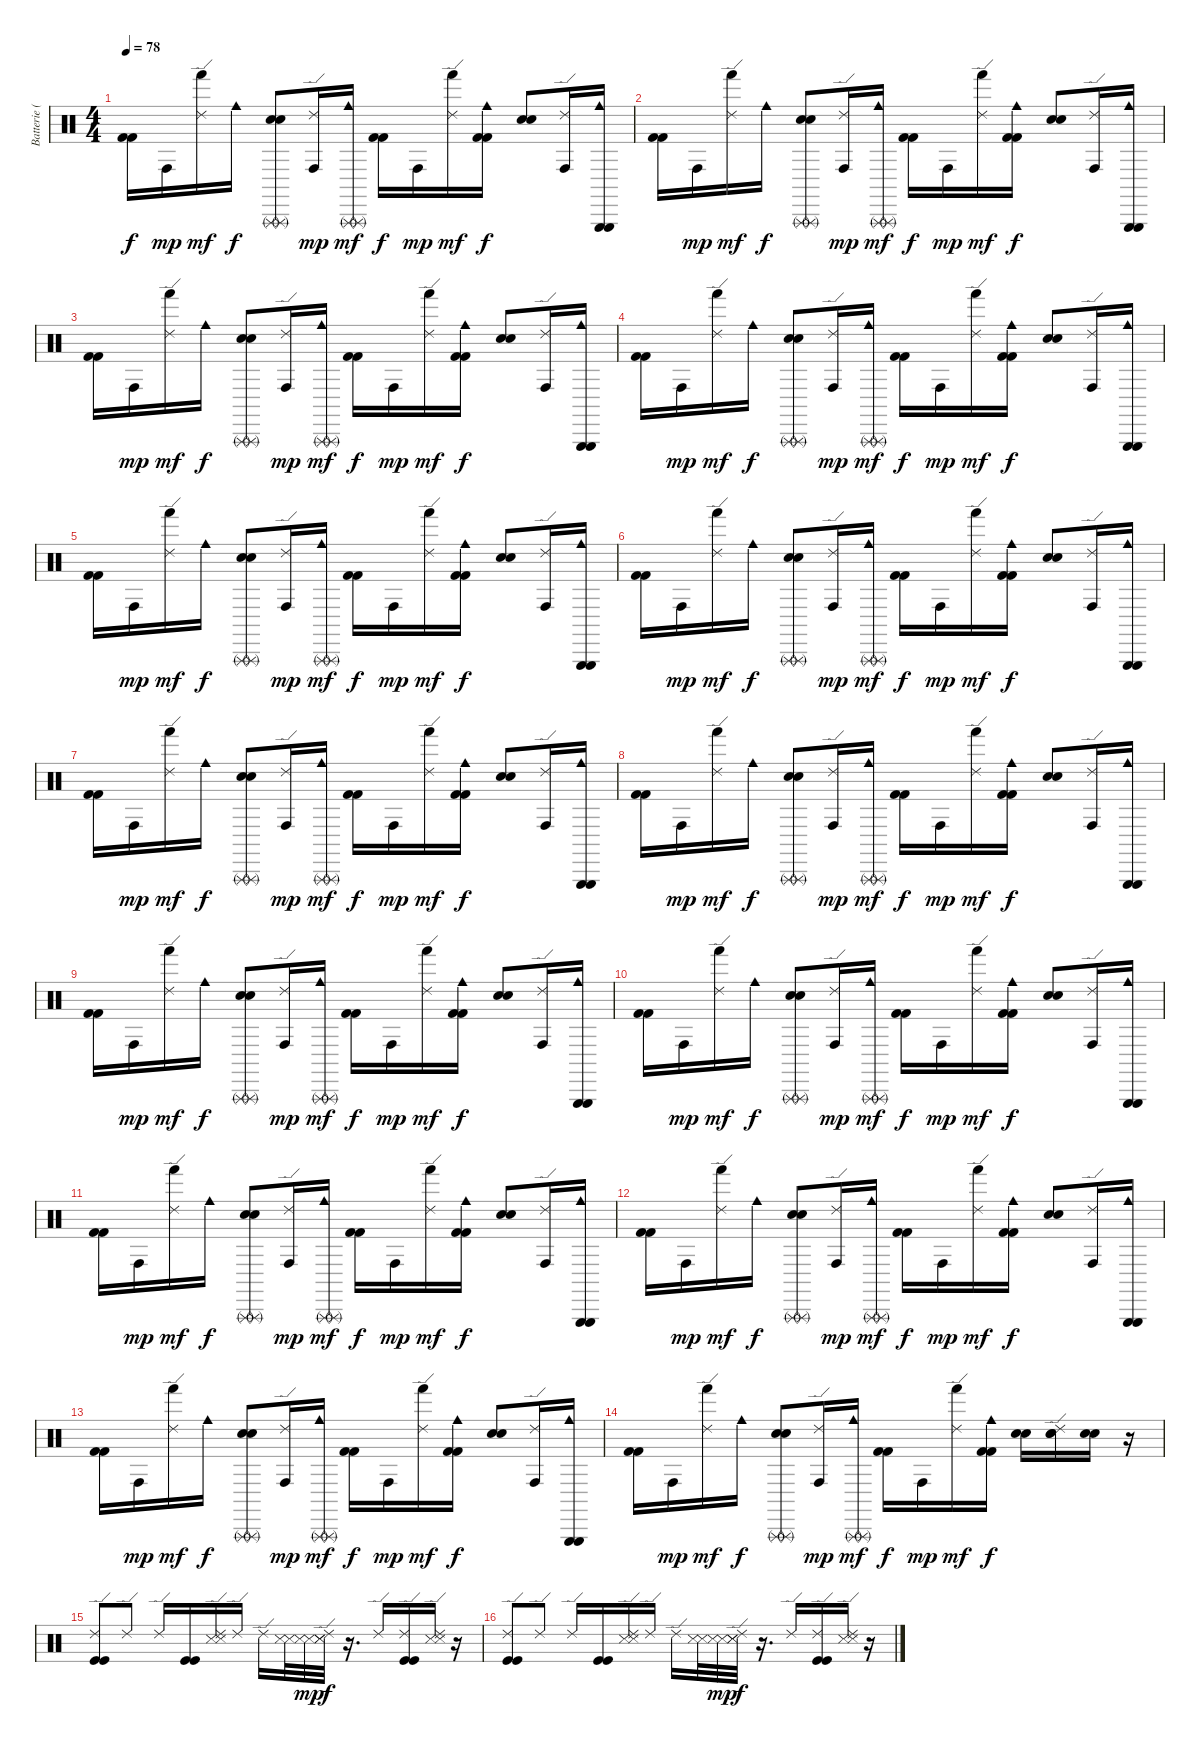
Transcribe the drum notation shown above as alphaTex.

\track ("Batterie ( Raphaël )" "Batterie (") {instrument percussion}
\staff {score}
\articulation defaults
\ts (4 4)
\tempo 78
\clef neutral
\ks c
("Kick (hit) 2" "Kick (hit) 2").16{dy f} "Conga high (hit)".16{dy mp} ("Ride (edge) 2" "Hand (hit)").16{dy mf} "Cowbell medium (hit)".16{dy f} ("Triangle (rnute)" "Triangle (rnute)" "Electric Snare (hit)" "Electric Snare (hit)").8 ("Ride (edge) 2" "Conga high (hit)").16{dy mp} ("Triangle (rnute)" "Triangle (rnute)" "Cowbell medium (hit)").16{dy mf} ("Kick (hit) 2" "Kick (hit) 2").16{dy f} "Conga high (hit)".16{dy mp} ("Ride (edge) 2" "Hand (hit)").16{dy mf} ("Cowbell medium (hit)" "Kick (hit) 2" "Kick (hit) 2").16{dy f} ("Electric Snare (hit)" "Electric Snare (hit)").8 ("Ride (edge) 2" "Conga high (hit)").16 ("Triangle (hit)" "Triangle (hit)" "Cowbell medium (hit)").16 |
("Kick (hit) 2" "Kick (hit) 2").16 "Conga high (hit)".16{dy mp} ("Ride (edge) 2" "Hand (hit)").16{dy mf} "Cowbell medium (hit)".16{dy f} ("Triangle (rnute)" "Triangle (rnute)" "Electric Snare (hit)" "Electric Snare (hit)").8 ("Ride (edge) 2" "Conga high (hit)").16{dy mp} ("Triangle (rnute)" "Triangle (rnute)" "Cowbell medium (hit)").16{dy mf} ("Kick (hit) 2" "Kick (hit) 2").16{dy f} "Conga high (hit)".16{dy mp} ("Ride (edge) 2" "Hand (hit)").16{dy mf} ("Cowbell medium (hit)" "Kick (hit) 2" "Kick (hit) 2").16{dy f} ("Electric Snare (hit)" "Electric Snare (hit)").8 ("Ride (edge) 2" "Conga high (hit)").16 ("Triangle (hit)" "Triangle (hit)" "Cowbell medium (hit)").16 |
("Kick (hit) 2" "Kick (hit) 2").16 "Conga high (hit)".16{dy mp} ("Ride (edge) 2" "Hand (hit)").16{dy mf} "Cowbell medium (hit)".16{dy f} ("Triangle (rnute)" "Triangle (rnute)" "Electric Snare (hit)" "Electric Snare (hit)").8 ("Ride (edge) 2" "Conga high (hit)").16{dy mp} ("Triangle (rnute)" "Triangle (rnute)" "Cowbell medium (hit)").16{dy mf} ("Kick (hit) 2" "Kick (hit) 2").16{dy f} "Conga high (hit)".16{dy mp} ("Ride (edge) 2" "Hand (hit)").16{dy mf} ("Cowbell medium (hit)" "Kick (hit) 2" "Kick (hit) 2").16{dy f} ("Electric Snare (hit)" "Electric Snare (hit)").8 ("Ride (edge) 2" "Conga high (hit)").16 ("Triangle (hit)" "Triangle (hit)" "Cowbell medium (hit)").16 |
("Kick (hit) 2" "Kick (hit) 2").16 "Conga high (hit)".16{dy mp} ("Ride (edge) 2" "Hand (hit)").16{dy mf} "Cowbell medium (hit)".16{dy f} ("Triangle (rnute)" "Triangle (rnute)" "Electric Snare (hit)" "Electric Snare (hit)").8 ("Ride (edge) 2" "Conga high (hit)").16{dy mp} ("Triangle (rnute)" "Triangle (rnute)" "Cowbell medium (hit)").16{dy mf} ("Kick (hit) 2" "Kick (hit) 2").16{dy f} "Conga high (hit)".16{dy mp} ("Ride (edge) 2" "Hand (hit)").16{dy mf} ("Cowbell medium (hit)" "Kick (hit) 2" "Kick (hit) 2").16{dy f} ("Electric Snare (hit)" "Electric Snare (hit)").8 ("Ride (edge) 2" "Conga high (hit)").16 ("Triangle (hit)" "Triangle (hit)" "Cowbell medium (hit)").16 |
("Kick (hit) 2" "Kick (hit) 2").16 "Conga high (hit)".16{dy mp} ("Ride (edge) 2" "Hand (hit)").16{dy mf} "Cowbell medium (hit)".16{dy f} ("Triangle (rnute)" "Triangle (rnute)" "Electric Snare (hit)" "Electric Snare (hit)").8 ("Ride (edge) 2" "Conga high (hit)").16{dy mp} ("Triangle (rnute)" "Triangle (rnute)" "Cowbell medium (hit)").16{dy mf} ("Kick (hit) 2" "Kick (hit) 2").16{dy f} "Conga high (hit)".16{dy mp} ("Ride (edge) 2" "Hand (hit)").16{dy mf} ("Cowbell medium (hit)" "Kick (hit) 2" "Kick (hit) 2").16{dy f} ("Electric Snare (hit)" "Electric Snare (hit)").8 ("Ride (edge) 2" "Conga high (hit)").16 ("Triangle (hit)" "Triangle (hit)" "Cowbell medium (hit)").16 |
("Kick (hit) 2" "Kick (hit) 2").16 "Conga high (hit)".16{dy mp} ("Ride (edge) 2" "Hand (hit)").16{dy mf} "Cowbell medium (hit)".16{dy f} ("Triangle (rnute)" "Triangle (rnute)" "Electric Snare (hit)" "Electric Snare (hit)").8 ("Ride (edge) 2" "Conga high (hit)").16{dy mp} ("Triangle (rnute)" "Triangle (rnute)" "Cowbell medium (hit)").16{dy mf} ("Kick (hit) 2" "Kick (hit) 2").16{dy f} "Conga high (hit)".16{dy mp} ("Ride (edge) 2" "Hand (hit)").16{dy mf} ("Cowbell medium (hit)" "Kick (hit) 2" "Kick (hit) 2").16{dy f} ("Electric Snare (hit)" "Electric Snare (hit)").8 ("Ride (edge) 2" "Conga high (hit)").16 ("Triangle (hit)" "Triangle (hit)" "Cowbell medium (hit)").16 |
("Kick (hit) 2" "Kick (hit) 2").16 "Conga high (hit)".16{dy mp} ("Ride (edge) 2" "Hand (hit)").16{dy mf} "Cowbell medium (hit)".16{dy f} ("Triangle (rnute)" "Triangle (rnute)" "Electric Snare (hit)" "Electric Snare (hit)").8 ("Ride (edge) 2" "Conga high (hit)").16{dy mp} ("Triangle (rnute)" "Triangle (rnute)" "Cowbell medium (hit)").16{dy mf} ("Kick (hit) 2" "Kick (hit) 2").16{dy f} "Conga high (hit)".16{dy mp} ("Ride (edge) 2" "Hand (hit)").16{dy mf} ("Cowbell medium (hit)" "Kick (hit) 2" "Kick (hit) 2").16{dy f} ("Electric Snare (hit)" "Electric Snare (hit)").8 ("Ride (edge) 2" "Conga high (hit)").16 ("Triangle (hit)" "Triangle (hit)" "Cowbell medium (hit)").16 |
("Kick (hit) 2" "Kick (hit) 2").16 "Conga high (hit)".16{dy mp} ("Ride (edge) 2" "Hand (hit)").16{dy mf} "Cowbell medium (hit)".16{dy f} ("Triangle (rnute)" "Triangle (rnute)" "Electric Snare (hit)" "Electric Snare (hit)").8 ("Ride (edge) 2" "Conga high (hit)").16{dy mp} ("Triangle (rnute)" "Triangle (rnute)" "Cowbell medium (hit)").16{dy mf} ("Kick (hit) 2" "Kick (hit) 2").16{dy f} "Conga high (hit)".16{dy mp} ("Ride (edge) 2" "Hand (hit)").16{dy mf} ("Cowbell medium (hit)" "Kick (hit) 2" "Kick (hit) 2").16{dy f} ("Electric Snare (hit)" "Electric Snare (hit)").8 ("Ride (edge) 2" "Conga high (hit)").16 ("Triangle (hit)" "Triangle (hit)" "Cowbell medium (hit)").16 |
("Kick (hit) 2" "Kick (hit) 2").16 "Conga high (hit)".16{dy mp} ("Ride (edge) 2" "Hand (hit)").16{dy mf} "Cowbell medium (hit)".16{dy f} ("Triangle (rnute)" "Triangle (rnute)" "Electric Snare (hit)" "Electric Snare (hit)").8 ("Ride (edge) 2" "Conga high (hit)").16{dy mp} ("Triangle (rnute)" "Triangle (rnute)" "Cowbell medium (hit)").16{dy mf} ("Kick (hit) 2" "Kick (hit) 2").16{dy f} "Conga high (hit)".16{dy mp} ("Ride (edge) 2" "Hand (hit)").16{dy mf} ("Cowbell medium (hit)" "Kick (hit) 2" "Kick (hit) 2").16{dy f} ("Electric Snare (hit)" "Electric Snare (hit)").8 ("Ride (edge) 2" "Conga high (hit)").16 ("Triangle (hit)" "Triangle (hit)" "Cowbell medium (hit)").16 |
("Kick (hit) 2" "Kick (hit) 2").16 "Conga high (hit)".16{dy mp} ("Ride (edge) 2" "Hand (hit)").16{dy mf} "Cowbell medium (hit)".16{dy f} ("Triangle (rnute)" "Triangle (rnute)" "Electric Snare (hit)" "Electric Snare (hit)").8 ("Ride (edge) 2" "Conga high (hit)").16{dy mp} ("Triangle (rnute)" "Triangle (rnute)" "Cowbell medium (hit)").16{dy mf} ("Kick (hit) 2" "Kick (hit) 2").16{dy f} "Conga high (hit)".16{dy mp} ("Ride (edge) 2" "Hand (hit)").16{dy mf} ("Cowbell medium (hit)" "Kick (hit) 2" "Kick (hit) 2").16{dy f} ("Electric Snare (hit)" "Electric Snare (hit)").8 ("Ride (edge) 2" "Conga high (hit)").16 ("Triangle (hit)" "Triangle (hit)" "Cowbell medium (hit)").16 |
("Kick (hit) 2" "Kick (hit) 2").16 "Conga high (hit)".16{dy mp} ("Ride (edge) 2" "Hand (hit)").16{dy mf} "Cowbell medium (hit)".16{dy f} ("Triangle (rnute)" "Triangle (rnute)" "Electric Snare (hit)" "Electric Snare (hit)").8 ("Ride (edge) 2" "Conga high (hit)").16{dy mp} ("Triangle (rnute)" "Triangle (rnute)" "Cowbell medium (hit)").16{dy mf} ("Kick (hit) 2" "Kick (hit) 2").16{dy f} "Conga high (hit)".16{dy mp} ("Ride (edge) 2" "Hand (hit)").16{dy mf} ("Cowbell medium (hit)" "Kick (hit) 2" "Kick (hit) 2").16{dy f} ("Electric Snare (hit)" "Electric Snare (hit)").8 ("Ride (edge) 2" "Conga high (hit)").16 ("Triangle (hit)" "Triangle (hit)" "Cowbell medium (hit)").16 |
("Kick (hit) 2" "Kick (hit) 2").16 "Conga high (hit)".16{dy mp} ("Ride (edge) 2" "Hand (hit)").16{dy mf} "Cowbell medium (hit)".16{dy f} ("Triangle (rnute)" "Triangle (rnute)" "Electric Snare (hit)" "Electric Snare (hit)").8 ("Ride (edge) 2" "Conga high (hit)").16{dy mp} ("Triangle (rnute)" "Triangle (rnute)" "Cowbell medium (hit)").16{dy mf} ("Kick (hit) 2" "Kick (hit) 2").16{dy f} "Conga high (hit)".16{dy mp} ("Ride (edge) 2" "Hand (hit)").16{dy mf} ("Cowbell medium (hit)" "Kick (hit) 2" "Kick (hit) 2").16{dy f} ("Electric Snare (hit)" "Electric Snare (hit)").8 ("Ride (edge) 2" "Conga high (hit)").16 ("Triangle (hit)" "Triangle (hit)" "Cowbell medium (hit)").16 |
("Kick (hit) 2" "Kick (hit) 2").16 "Conga high (hit)".16{dy mp} ("Ride (edge) 2" "Hand (hit)").16{dy mf} "Cowbell medium (hit)".16{dy f} ("Triangle (rnute)" "Triangle (rnute)" "Electric Snare (hit)" "Electric Snare (hit)").8 ("Ride (edge) 2" "Conga high (hit)").16{dy mp} ("Triangle (rnute)" "Triangle (rnute)" "Cowbell medium (hit)").16{dy mf} ("Kick (hit) 2" "Kick (hit) 2").16{dy f} "Conga high (hit)".16{dy mp} ("Ride (edge) 2" "Hand (hit)").16{dy mf} ("Cowbell medium (hit)" "Kick (hit) 2" "Kick (hit) 2").16{dy f} ("Electric Snare (hit)" "Electric Snare (hit)").8 ("Ride (edge) 2" "Conga high (hit)").16 ("Triangle (hit)" "Triangle (hit)" "Cowbell medium (hit)").16 |
("Kick (hit) 2" "Kick (hit) 2").16 "Conga high (hit)".16{dy mp} ("Ride (edge) 2" "Hand (hit)").16{dy mf} "Cowbell medium (hit)".16{dy f} ("Triangle (rnute)" "Triangle (rnute)" "Electric Snare (hit)" "Electric Snare (hit)").8 ("Ride (edge) 2" "Conga high (hit)").16{dy mp} ("Triangle (rnute)" "Triangle (rnute)" "Cowbell medium (hit)").16{dy mf} ("Kick (hit) 2" "Kick (hit) 2").16{dy f} "Conga high (hit)".16{dy mp} ("Ride (edge) 2" "Hand (hit)").16{dy mf} ("Cowbell medium (hit)" "Kick (hit) 2" "Kick (hit) 2").16{dy f} ("Electric Snare (hit)" "Electric Snare (hit)").16 ("Ride (edge) 2" "Electric Snare (hit)" "Electric Snare (hit)").16 ("Electric Snare (hit)" "Electric Snare (hit)").16 r.16 |
("Ride (edge) 2" "Kick (hit)" "Kick (hit)").8 "Ride (edge) 2".8 "Ride (edge) 2".16 ("Kick (hit)" "Kick (hit)").16 ("Ride (edge) 2" "Snare (side stick) 3" "Snare (side stick) 3").16 "Ride (edge) 2".16 "Ride (edge) 2".16 ("Snare (side stick) 3" "Snare (side stick) 3").32 ("Snare (side stick) 3" "Snare (side stick) 3").32{dy mp} ("Ride (edge) 2" "Snare (side stick) 3" "Snare (side stick) 3").32{dy f} r.16{d} "Ride (edge) 2".16 ("Ride (edge) 2" "Kick (hit)" "Kick (hit)").16 ("Ride (edge) 2" "Snare (side stick) 3" "Snare (side stick) 3").16 r.16 |
("Ride (edge) 2" "Kick (hit)" "Kick (hit)").8 "Ride (edge) 2".8 "Ride (edge) 2".16 ("Kick (hit)" "Kick (hit)").16 ("Ride (edge) 2" "Snare (side stick) 3" "Snare (side stick) 3").16 "Ride (edge) 2".16 "Ride (edge) 2".16 ("Snare (side stick) 3" "Snare (side stick) 3").32 ("Snare (side stick) 3" "Snare (side stick) 3").32{dy mp} ("Ride (edge) 2" "Snare (side stick) 3" "Snare (side stick) 3").32{dy f} r.16{d} "Ride (edge) 2".16 ("Ride (edge) 2" "Kick (hit)" "Kick (hit)").16 ("Ride (edge) 2" "Snare (side stick) 3" "Snare (side stick) 3").16 r.16
